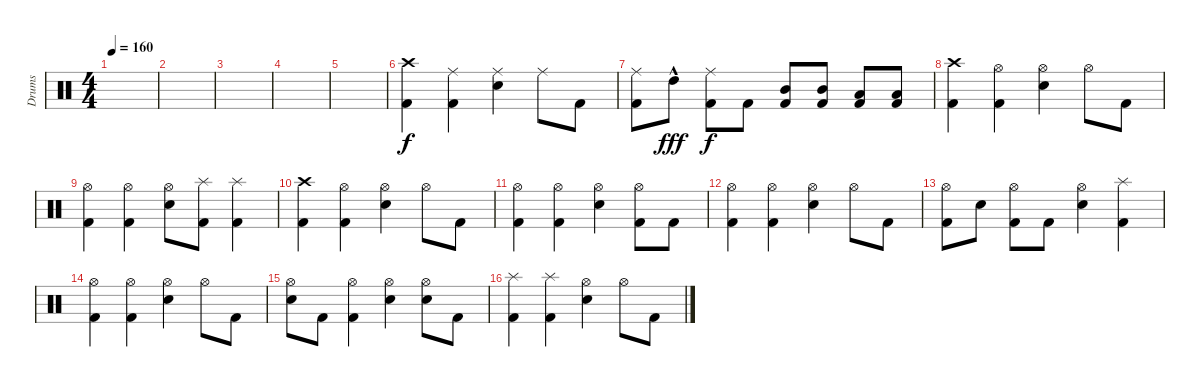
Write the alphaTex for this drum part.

\track ("Drums" "Drums") {instrument percussion}
\staff {score}
\articulation defaults
\ts (4 4)
\tempo 160
\clef neutral
\ks c
|
|
|
|
|
("Crash high (hit)" "Kick (hit) 2").4 ("Ride (middle)" "Kick (hit) 2").4 ("Ride (middle)" "Electric Snare (hit)").4 "Ride (middle)".8 "Kick (hit) 2".8 |
("Ride (middle)" "Kick (hit) 2").8 "High Tom (hit)"{hac}.8{dy fff} ("Ride (middle)" "Kick (hit) 2").8{dy f} "Kick (hit) 2".8 ("Mid Tom (hit)" "Kick (hit) 2").8 ("Mid Tom (hit)" "Kick (hit) 2").8 ("Low Tom (hit)" "Kick (hit) 2").8 ("Low Tom (hit)" "Kick (hit) 2").8 |
("Crash high (hit)" "Kick (hit) 2").4 ("Hi-Hat (open)" "Kick (hit) 2").4 ("Hi-Hat (open)" "Electric Snare (hit)").4 "Hi-Hat (open)".8 "Kick (hit) 2".8 |
("Hi-Hat (open)" "Kick (hit) 2").4 ("Hi-Hat (open)" "Kick (hit) 2").4 ("Hi-Hat (open)" "Electric Snare (hit)").8 ("Splash (hit)" "Kick (hit) 2").8 ("Splash (hit)" "Kick (hit) 2").4 |
("Crash high (hit)" "Kick (hit) 2").4 ("Hi-Hat (open)" "Kick (hit) 2").4 ("Hi-Hat (open)" "Electric Snare (hit)").4 "Hi-Hat (open)".8 "Kick (hit) 2".8 |
("Hi-Hat (open)" "Kick (hit) 2").4 ("Hi-Hat (open)" "Kick (hit) 2").4 ("Hi-Hat (open)" "Electric Snare (hit)").4 ("Hi-Hat (open)" "Kick (hit) 2").8 "Kick (hit) 2".8 |
("Hi-Hat (open)" "Kick (hit) 2").4 ("Hi-Hat (open)" "Kick (hit) 2").4 ("Hi-Hat (open)" "Electric Snare (hit)").4 "Hi-Hat (open)".8 "Kick (hit) 2".8 |
("Hi-Hat (open)" "Kick (hit) 2").8 "Electric Snare (hit)".8 ("Hi-Hat (open)" "Kick (hit) 2").8 "Kick (hit) 2".8 ("Hi-Hat (open)" "Electric Snare (hit)").4 ("Splash (hit)" "Kick (hit) 2").4 |
("Hi-Hat (open)" "Kick (hit) 2").4 ("Hi-Hat (open)" "Kick (hit) 2").4 ("Hi-Hat (open)" "Electric Snare (hit)").4 "Hi-Hat (open)".8 "Kick (hit) 2".8 |
("Hi-Hat (open)" "Electric Snare (hit)").8 "Kick (hit) 2".8 ("Hi-Hat (open)" "Kick (hit) 2").4 ("Hi-Hat (open)" "Electric Snare (hit)").4 ("Hi-Hat (open)" "Electric Snare (hit)").8 "Kick (hit) 2".8 |
("Splash (hit)" "Kick (hit) 2").4 ("Splash (hit)" "Kick (hit) 2").4 ("Hi-Hat (open)" "Electric Snare (hit)").4 "Hi-Hat (open)".8 "Kick (hit) 2".8
